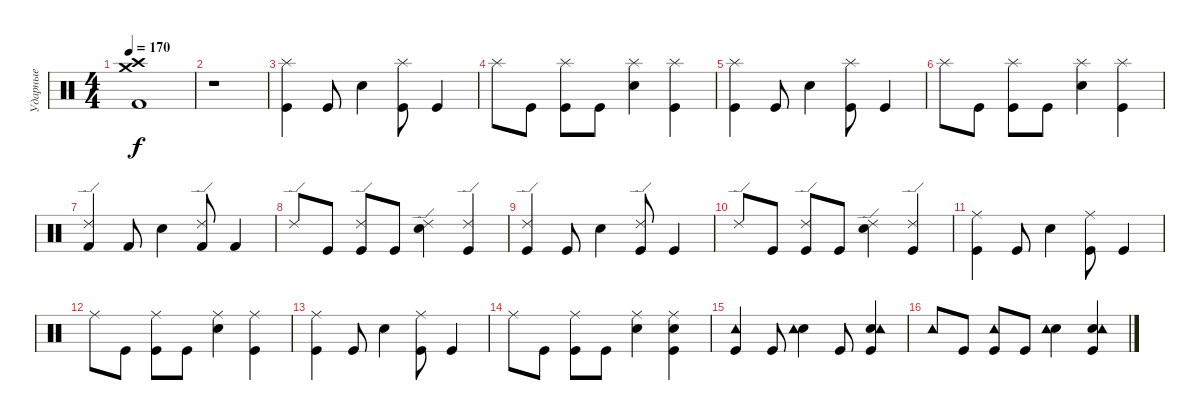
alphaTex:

\track ("Ударные" "Ударные") {instrument percussion}
\staff {score}
\articulation defaults
\ts (4 4)
\tempo 170
\clef neutral
\ks c
("Kick (hit) 2" "Crash high (hit)" "Crash medium (hit)").1{dy f} |
r.1 |
("Kick (hit)" "Splash (hit)").4{volume 10} "Kick (hit)".8 "Electric Snare (hit)".4 ("Kick (hit)" "Splash (hit)").8 "Kick (hit)".4 |
"Splash (hit)".8 "Kick (hit)".8 ("Kick (hit)" "Splash (hit)").8 "Kick (hit)".8 ("Electric Snare (hit)" "Splash (hit)").4 ("Kick (hit)" "Splash (hit)").4 |
("Kick (hit)" "Splash (hit)").4 "Kick (hit)".8 "Electric Snare (hit)".4 ("Kick (hit)" "Splash (hit)").8 "Kick (hit)".4 |
"Splash (hit)".8 "Kick (hit)".8 ("Kick (hit)" "Splash (hit)").8 "Kick (hit)".8 ("Electric Snare (hit)" "Splash (hit)").4 ("Kick (hit)" "Splash (hit)").4 |
("Kick (hit) 2" "Ride (edge) 2").4 "Kick (hit) 2".8 "Electric Snare (hit)".4 ("Kick (hit) 2" "Ride (edge) 2").8 "Kick (hit) 2".4 |
"Ride (edge) 2".8 "Kick (hit)".8 ("Kick (hit)" "Ride (edge) 2").8 "Kick (hit)".8 ("Electric Snare (hit)" "Ride (edge) 2").4 ("Kick (hit)" "Ride (edge) 2").4 |
("Kick (hit)" "Ride (edge) 2").4 "Kick (hit)".8 "Electric Snare (hit)".4 ("Kick (hit)" "Ride (edge) 2").8 "Kick (hit)".4 |
"Ride (edge) 2".8 "Kick (hit)".8 ("Kick (hit)" "Ride (edge) 2").8 "Kick (hit)".8 ("Electric Snare (hit)" "Ride (edge) 2").4 ("Kick (hit)" "Ride (edge) 2").4 |
("Kick (hit)" "Ride (middle)").4 "Kick (hit)".8 "Electric Snare (hit)".4 ("Kick (hit)" "Ride (middle)").8 "Kick (hit)".4 |
"Ride (middle)".8 "Kick (hit)".8 ("Kick (hit)" "Ride (middle)").8 "Kick (hit)".8 ("Electric Snare (hit)" "Ride (middle)").4 ("Kick (hit)" "Ride (middle)").4 |
("Kick (hit)" "Ride (middle)").4 "Kick (hit)".8 "Electric Snare (hit)".4 ("Kick (hit)" "Ride (middle)").8 "Kick (hit)".4 |
"Ride (middle)".8 "Kick (hit)".8 ("Kick (hit)" "Ride (middle)").8 "Kick (hit)".8 ("Electric Snare (hit)" "Ride (middle)").4 ("Kick (hit)" "Electric Snare (hit)" "Ride (middle)").4 |
("Kick (hit)" "Tambourine (hit)").4 "Kick (hit)".8 ("Electric Snare (hit)" "Tambourine (hit)").4 "Kick (hit)".8 ("Kick (hit)" "Electric Snare (hit)" "Tambourine (hit)").4 |
"Tambourine (hit)".8 "Kick (hit)".8 ("Kick (hit)" "Tambourine (hit)").8 "Kick (hit)".8 ("Electric Snare (hit)" "Tambourine (hit)").4 ("Kick (hit)" "Electric Snare (hit)" "Tambourine (hit)").4
